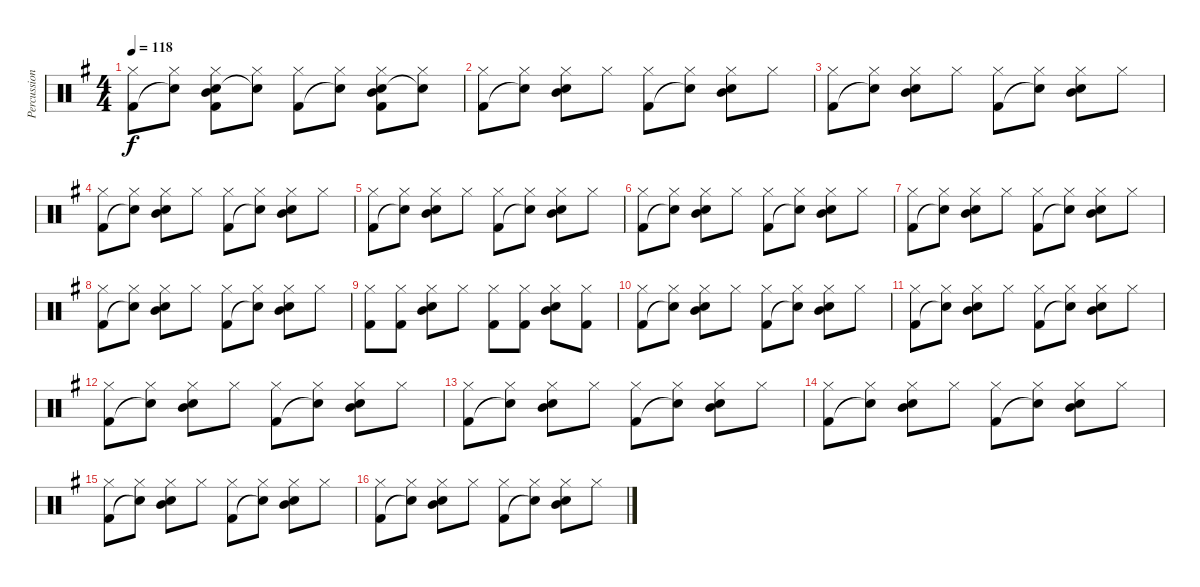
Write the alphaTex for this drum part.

\track ("Percussion" "Percussion") {instrument percussion}
\staff {score}
\articulation defaults
\ts (4 4)
\tempo 118
\clef neutral
\ks g
("Hi-Hat (closed)" "Kick (hit) 2").8{dy f} ("Hi-Hat (closed)" "Snare (hit)"{t}).8 ("Hi-Hat (closed)" "Snare (hit) 2" "Mid Tom (hit)" "Kick (hit) 2").8 ("Hi-Hat (closed)" "Snare (hit)"{t}).8 ("Hi-Hat (closed)" "Kick (hit) 2").8 ("Hi-Hat (closed)" "Snare (hit)"{t}).8 ("Hi-Hat (closed)" "Snare (hit) 2" "Mid Tom (hit)" "Kick (hit) 2").8 ("Hi-Hat (closed)" "Snare (hit)"{t}).8 |
("Hi-Hat (closed)" "Kick (hit) 2").8 ("Hi-Hat (closed)" "Snare (hit)"{t}).8 ("Hi-Hat (closed)" "Snare (hit) 2" "Mid Tom (hit)").8 "Hi-Hat (closed)".8 ("Hi-Hat (closed)" "Kick (hit) 2").8 ("Hi-Hat (closed)" "Snare (hit)"{t}).8 ("Hi-Hat (closed)" "Snare (hit) 2" "Mid Tom (hit)").8 "Hi-Hat (closed)".8 |
("Hi-Hat (closed)" "Kick (hit) 2").8 ("Hi-Hat (closed)" "Snare (hit)"{t}).8 ("Hi-Hat (closed)" "Snare (hit) 2" "Mid Tom (hit)").8 "Hi-Hat (closed)".8 ("Hi-Hat (closed)" "Kick (hit) 2").8 ("Hi-Hat (closed)" "Snare (hit)"{t}).8 ("Hi-Hat (closed)" "Snare (hit) 2" "Mid Tom (hit)").8 "Hi-Hat (closed)".8 |
("Hi-Hat (closed)" "Kick (hit) 2").8 ("Hi-Hat (closed)" "Snare (hit)"{t}).8 ("Hi-Hat (closed)" "Snare (hit) 2" "Mid Tom (hit)").8 "Hi-Hat (closed)".8 ("Hi-Hat (closed)" "Kick (hit) 2").8 ("Hi-Hat (closed)" "Snare (hit)"{t}).8 ("Hi-Hat (closed)" "Snare (hit) 2" "Mid Tom (hit)").8 "Hi-Hat (closed)".8 |
("Hi-Hat (closed)" "Kick (hit) 2").8 ("Hi-Hat (closed)" "Snare (hit)"{t}).8 ("Hi-Hat (closed)" "Snare (hit) 2" "Mid Tom (hit)").8 "Hi-Hat (closed)".8 ("Hi-Hat (closed)" "Kick (hit) 2").8 ("Hi-Hat (closed)" "Snare (hit)"{t}).8 ("Hi-Hat (closed)" "Snare (hit) 2" "Mid Tom (hit)").8 "Hi-Hat (closed)".8 |
("Hi-Hat (closed)" "Kick (hit) 2").8 ("Hi-Hat (closed)" "Snare (hit)"{t}).8 ("Hi-Hat (closed)" "Snare (hit) 2" "Mid Tom (hit)").8 "Hi-Hat (closed)".8 ("Hi-Hat (closed)" "Kick (hit) 2").8 ("Hi-Hat (closed)" "Snare (hit)"{t}).8 ("Hi-Hat (closed)" "Snare (hit) 2" "Mid Tom (hit)").8 "Hi-Hat (closed)".8 |
("Hi-Hat (closed)" "Kick (hit) 2").8 ("Hi-Hat (closed)" "Snare (hit)"{t}).8 ("Hi-Hat (closed)" "Snare (hit) 2" "Mid Tom (hit)").8 "Hi-Hat (closed)".8 ("Hi-Hat (closed)" "Kick (hit) 2").8 ("Hi-Hat (closed)" "Snare (hit)"{t}).8 ("Hi-Hat (closed)" "Snare (hit) 2" "Mid Tom (hit)").8 "Hi-Hat (closed)".8 |
("Hi-Hat (closed)" "Kick (hit) 2").8 ("Hi-Hat (closed)" "Snare (hit)"{t}).8 ("Hi-Hat (closed)" "Snare (hit) 2" "Mid Tom (hit)").8 "Hi-Hat (closed)".8 ("Hi-Hat (closed)" "Kick (hit) 2").8 ("Hi-Hat (closed)" "Snare (hit)"{t}).8 ("Hi-Hat (closed)" "Snare (hit) 2" "Mid Tom (hit)").8 "Hi-Hat (closed)".8 |
("Hi-Hat (closed)" "Kick (hit) 2").8 ("Hi-Hat (closed)" "Kick (hit) 2").8 ("Hi-Hat (closed)" "Snare (hit) 2" "Mid Tom (hit)").8 "Hi-Hat (closed)".8 ("Hi-Hat (closed)" "Kick (hit) 2").8 ("Hi-Hat (closed)" "Kick (hit) 2").8 ("Hi-Hat (closed)" "Snare (hit) 2" "Mid Tom (hit)").8 ("Hi-Hat (closed)" "Kick (hit) 2").8 |
("Hi-Hat (closed)" "Kick (hit) 2").8 ("Hi-Hat (closed)" "Snare (hit)"{t}).8 ("Hi-Hat (closed)" "Snare (hit) 2" "Mid Tom (hit)").8 "Hi-Hat (closed)".8 ("Hi-Hat (closed)" "Kick (hit) 2").8 ("Hi-Hat (closed)" "Snare (hit)"{t}).8 ("Hi-Hat (closed)" "Snare (hit) 2" "Mid Tom (hit)").8 "Hi-Hat (closed)".8 |
("Hi-Hat (closed)" "Kick (hit) 2").8 ("Hi-Hat (closed)" "Snare (hit)"{t}).8 ("Hi-Hat (closed)" "Snare (hit) 2" "Mid Tom (hit)").8 "Hi-Hat (closed)".8 ("Hi-Hat (closed)" "Kick (hit) 2").8 ("Hi-Hat (closed)" "Snare (hit)"{t}).8 ("Hi-Hat (closed)" "Snare (hit) 2" "Mid Tom (hit)").8 "Hi-Hat (closed)".8 |
("Hi-Hat (closed)" "Kick (hit) 2").8 ("Hi-Hat (closed)" "Snare (hit)"{t}).8 ("Hi-Hat (closed)" "Snare (hit) 2" "Mid Tom (hit)").8 "Hi-Hat (closed)".8 ("Hi-Hat (closed)" "Kick (hit) 2").8 ("Hi-Hat (closed)" "Snare (hit)"{t}).8 ("Hi-Hat (closed)" "Snare (hit) 2" "Mid Tom (hit)").8 "Hi-Hat (closed)".8 |
("Hi-Hat (closed)" "Kick (hit) 2").8 ("Hi-Hat (closed)" "Snare (hit)"{t}).8 ("Hi-Hat (closed)" "Snare (hit) 2" "Mid Tom (hit)").8 "Hi-Hat (closed)".8 ("Hi-Hat (closed)" "Kick (hit) 2").8 ("Hi-Hat (closed)" "Snare (hit)"{t}).8 ("Hi-Hat (closed)" "Snare (hit) 2" "Mid Tom (hit)").8 "Hi-Hat (closed)".8 |
("Hi-Hat (closed)" "Kick (hit) 2").8 ("Hi-Hat (closed)" "Snare (hit)"{t}).8 ("Hi-Hat (closed)" "Snare (hit) 2" "Mid Tom (hit)").8 "Hi-Hat (closed)".8 ("Hi-Hat (closed)" "Kick (hit) 2").8 ("Hi-Hat (closed)" "Snare (hit)"{t}).8 ("Hi-Hat (closed)" "Snare (hit) 2" "Mid Tom (hit)").8 "Hi-Hat (closed)".8 |
("Hi-Hat (closed)" "Kick (hit) 2").8 ("Hi-Hat (closed)" "Snare (hit)"{t}).8 ("Hi-Hat (closed)" "Snare (hit) 2" "Mid Tom (hit)").8 "Hi-Hat (closed)".8 ("Hi-Hat (closed)" "Kick (hit) 2").8 ("Hi-Hat (closed)" "Snare (hit)"{t}).8 ("Hi-Hat (closed)" "Snare (hit) 2" "Mid Tom (hit)").8 "Hi-Hat (closed)".8 |
("Hi-Hat (closed)" "Kick (hit) 2").8 ("Hi-Hat (closed)" "Snare (hit)"{t}).8 ("Hi-Hat (closed)" "Snare (hit) 2" "Mid Tom (hit)").8 "Hi-Hat (closed)".8 ("Hi-Hat (closed)" "Kick (hit) 2").8 ("Hi-Hat (closed)" "Snare (hit)"{t}).8 ("Hi-Hat (closed)" "Snare (hit) 2" "Mid Tom (hit)").8 "Hi-Hat (closed)".8
